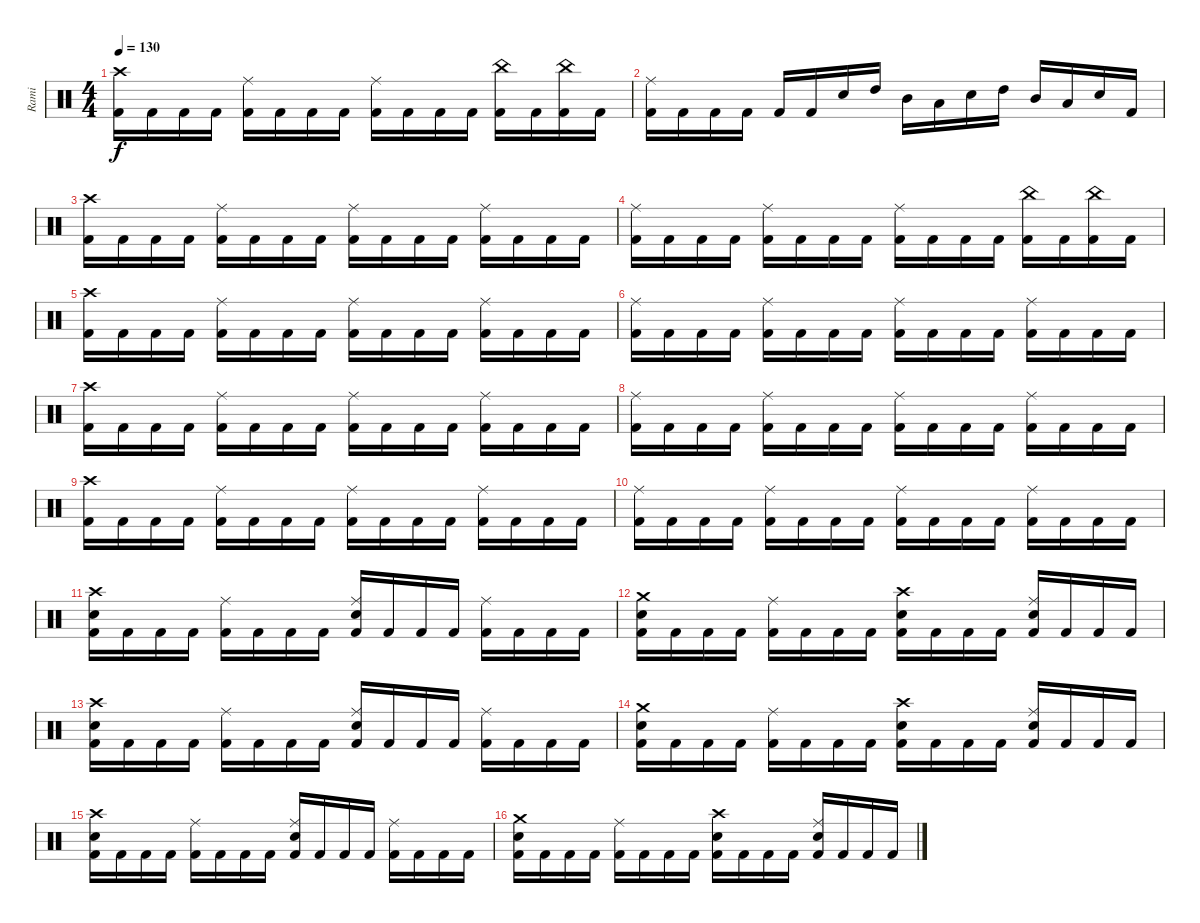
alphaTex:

\track ("Rami" "Rami") {instrument percussion}
\staff {score}
\articulation defaults
\ts (4 4)
\tempo 130
\clef neutral
\ks c
("Crash high (hit)" "Kick (hit) 2").16{dy f} "Kick (hit) 2".16 "Kick (hit) 2".16 "Kick (hit) 2".16 ("Ride (middle)" "Kick (hit) 2").16 "Kick (hit) 2".16 "Kick (hit) 2".16 "Kick (hit) 2".16 ("Ride (middle)" "Kick (hit) 2").16 "Kick (hit) 2".16 "Kick (hit) 2".16 "Kick (hit) 2".16 ("China (hit)" "Kick (hit) 2").16 "Kick (hit) 2".16 ("China (hit)" "Kick (hit) 2").16 "Kick (hit) 2".16 |
("Ride (middle)" "Kick (hit) 2").16 "Kick (hit) 2".16 "Kick (hit) 2".16 "Kick (hit) 2".16 "Kick (hit) 2".16 "Kick (hit) 2".16 "Electric Snare (hit)".16 "High Tom (hit)".16 "Mid Tom (hit)".16 "Low Tom (hit)".16 "Electric Snare (hit)".16 "High Tom (hit)".16 "Mid Tom (hit)".16 "Low Tom (hit)".16 "Electric Snare (hit)".16 "Kick (hit) 2".16 |
("Crash high (hit)" "Kick (hit) 2").16 "Kick (hit) 2".16 "Kick (hit) 2".16 "Kick (hit) 2".16 ("Ride (middle)" "Kick (hit) 2").16 "Kick (hit) 2".16 "Kick (hit) 2".16 "Kick (hit) 2".16 ("Ride (middle)" "Kick (hit) 2").16 "Kick (hit) 2".16 "Kick (hit) 2".16 "Kick (hit) 2".16 ("Ride (middle)" "Kick (hit) 2").16 "Kick (hit) 2".16 "Kick (hit) 2".16 "Kick (hit) 2".16 |
("Ride (middle)" "Kick (hit) 2").16 "Kick (hit) 2".16 "Kick (hit) 2".16 "Kick (hit) 2".16 ("Ride (middle)" "Kick (hit) 2").16 "Kick (hit) 2".16 "Kick (hit) 2".16 "Kick (hit) 2".16 ("Ride (middle)" "Kick (hit) 2").16 "Kick (hit) 2".16 "Kick (hit) 2".16 "Kick (hit) 2".16 ("China (hit)" "Kick (hit) 2").16 "Kick (hit) 2".16 ("China (hit)" "Kick (hit) 2").16 "Kick (hit) 2".16 |
("Crash high (hit)" "Kick (hit) 2").16 "Kick (hit) 2".16 "Kick (hit) 2".16 "Kick (hit) 2".16 ("Ride (middle)" "Kick (hit) 2").16 "Kick (hit) 2".16 "Kick (hit) 2".16 "Kick (hit) 2".16 ("Ride (middle)" "Kick (hit) 2").16 "Kick (hit) 2".16 "Kick (hit) 2".16 "Kick (hit) 2".16 ("Ride (middle)" "Kick (hit) 2").16 "Kick (hit) 2".16 "Kick (hit) 2".16 "Kick (hit) 2".16 |
("Ride (middle)" "Kick (hit) 2").16 "Kick (hit) 2".16 "Kick (hit) 2".16 "Kick (hit) 2".16 ("Ride (middle)" "Kick (hit) 2").16 "Kick (hit) 2".16 "Kick (hit) 2".16 "Kick (hit) 2".16 ("Ride (middle)" "Kick (hit) 2").16 "Kick (hit) 2".16 "Kick (hit) 2".16 "Kick (hit) 2".16 ("Ride (middle)" "Kick (hit) 2").16 "Kick (hit) 2".16 "Kick (hit) 2".16 "Kick (hit) 2".16 |
("Crash high (hit)" "Kick (hit) 2").16 "Kick (hit) 2".16 "Kick (hit) 2".16 "Kick (hit) 2".16 ("Ride (middle)" "Kick (hit) 2").16 "Kick (hit) 2".16 "Kick (hit) 2".16 "Kick (hit) 2".16 ("Ride (middle)" "Kick (hit) 2").16 "Kick (hit) 2".16 "Kick (hit) 2".16 "Kick (hit) 2".16 ("Ride (middle)" "Kick (hit) 2").16 "Kick (hit) 2".16 "Kick (hit) 2".16 "Kick (hit) 2".16 |
("Ride (middle)" "Kick (hit) 2").16 "Kick (hit) 2".16 "Kick (hit) 2".16 "Kick (hit) 2".16 ("Ride (middle)" "Kick (hit) 2").16 "Kick (hit) 2".16 "Kick (hit) 2".16 "Kick (hit) 2".16 ("Ride (middle)" "Kick (hit) 2").16 "Kick (hit) 2".16 "Kick (hit) 2".16 "Kick (hit) 2".16 ("Ride (middle)" "Kick (hit) 2").16 "Kick (hit) 2".16 "Kick (hit) 2".16 "Kick (hit) 2".16 |
("Crash high (hit)" "Kick (hit) 2").16 "Kick (hit) 2".16 "Kick (hit) 2".16 "Kick (hit) 2".16 ("Ride (middle)" "Kick (hit) 2").16 "Kick (hit) 2".16 "Kick (hit) 2".16 "Kick (hit) 2".16 ("Ride (middle)" "Kick (hit) 2").16 "Kick (hit) 2".16 "Kick (hit) 2".16 "Kick (hit) 2".16 ("Ride (middle)" "Kick (hit) 2").16 "Kick (hit) 2".16 "Kick (hit) 2".16 "Kick (hit) 2".16 |
("Ride (middle)" "Kick (hit) 2").16 "Kick (hit) 2".16 "Kick (hit) 2".16 "Kick (hit) 2".16 ("Ride (middle)" "Kick (hit) 2").16 "Kick (hit) 2".16 "Kick (hit) 2".16 "Kick (hit) 2".16 ("Ride (middle)" "Kick (hit) 2").16 "Kick (hit) 2".16 "Kick (hit) 2".16 "Kick (hit) 2".16 ("Ride (middle)" "Kick (hit) 2").16 "Kick (hit) 2".16 "Kick (hit) 2".16 "Kick (hit) 2".16 |
("Crash high (hit)" "Electric Snare (hit)" "Kick (hit) 2").16 "Kick (hit) 2".16 "Kick (hit) 2".16 "Kick (hit) 2".16 ("Ride (middle)" "Kick (hit) 2").16 "Kick (hit) 2".16 "Kick (hit) 2".16 "Kick (hit) 2".16 ("Ride (middle)" "Electric Snare (hit)" "Kick (hit) 2").16 "Kick (hit) 2".16 "Kick (hit) 2".16 "Kick (hit) 2".16 ("Ride (middle)" "Kick (hit) 2").16 "Kick (hit) 2".16 "Kick (hit) 2".16 "Kick (hit) 2".16 |
("Crash medium (hit)" "Electric Snare (hit)" "Kick (hit) 2").16 "Kick (hit) 2".16 "Kick (hit) 2".16 "Kick (hit) 2".16 ("Ride (middle)" "Kick (hit) 2").16 "Kick (hit) 2".16 "Kick (hit) 2".16 "Kick (hit) 2".16 ("Crash high (hit)" "Electric Snare (hit)" "Kick (hit) 2").16 "Kick (hit) 2".16 "Kick (hit) 2".16 "Kick (hit) 2".16 ("Ride (middle)" "Electric Snare (hit)" "Kick (hit) 2").16 "Kick (hit) 2".16 "Kick (hit) 2".16 "Kick (hit) 2".16 |
("Crash high (hit)" "Electric Snare (hit)" "Kick (hit) 2").16 "Kick (hit) 2".16 "Kick (hit) 2".16 "Kick (hit) 2".16 ("Ride (middle)" "Kick (hit) 2").16 "Kick (hit) 2".16 "Kick (hit) 2".16 "Kick (hit) 2".16 ("Ride (middle)" "Electric Snare (hit)" "Kick (hit) 2").16 "Kick (hit) 2".16 "Kick (hit) 2".16 "Kick (hit) 2".16 ("Ride (middle)" "Kick (hit) 2").16 "Kick (hit) 2".16 "Kick (hit) 2".16 "Kick (hit) 2".16 |
("Crash medium (hit)" "Electric Snare (hit)" "Kick (hit) 2").16 "Kick (hit) 2".16 "Kick (hit) 2".16 "Kick (hit) 2".16 ("Ride (middle)" "Kick (hit) 2").16 "Kick (hit) 2".16 "Kick (hit) 2".16 "Kick (hit) 2".16 ("Crash high (hit)" "Electric Snare (hit)" "Kick (hit) 2").16 "Kick (hit) 2".16 "Kick (hit) 2".16 "Kick (hit) 2".16 ("Ride (middle)" "Electric Snare (hit)" "Kick (hit) 2").16 "Kick (hit) 2".16 "Kick (hit) 2".16 "Kick (hit) 2".16 |
("Crash high (hit)" "Electric Snare (hit)" "Kick (hit) 2").16 "Kick (hit) 2".16 "Kick (hit) 2".16 "Kick (hit) 2".16 ("Ride (middle)" "Kick (hit) 2").16 "Kick (hit) 2".16 "Kick (hit) 2".16 "Kick (hit) 2".16 ("Ride (middle)" "Electric Snare (hit)" "Kick (hit) 2").16 "Kick (hit) 2".16 "Kick (hit) 2".16 "Kick (hit) 2".16 ("Ride (middle)" "Kick (hit) 2").16 "Kick (hit) 2".16 "Kick (hit) 2".16 "Kick (hit) 2".16 |
("Crash medium (hit)" "Electric Snare (hit)" "Kick (hit) 2").16 "Kick (hit) 2".16 "Kick (hit) 2".16 "Kick (hit) 2".16 ("Ride (middle)" "Kick (hit) 2").16 "Kick (hit) 2".16 "Kick (hit) 2".16 "Kick (hit) 2".16 ("Crash high (hit)" "Electric Snare (hit)" "Kick (hit) 2").16 "Kick (hit) 2".16 "Kick (hit) 2".16 "Kick (hit) 2".16 ("Ride (middle)" "Electric Snare (hit)" "Kick (hit) 2").16 "Kick (hit) 2".16 "Kick (hit) 2".16 "Kick (hit) 2".16
